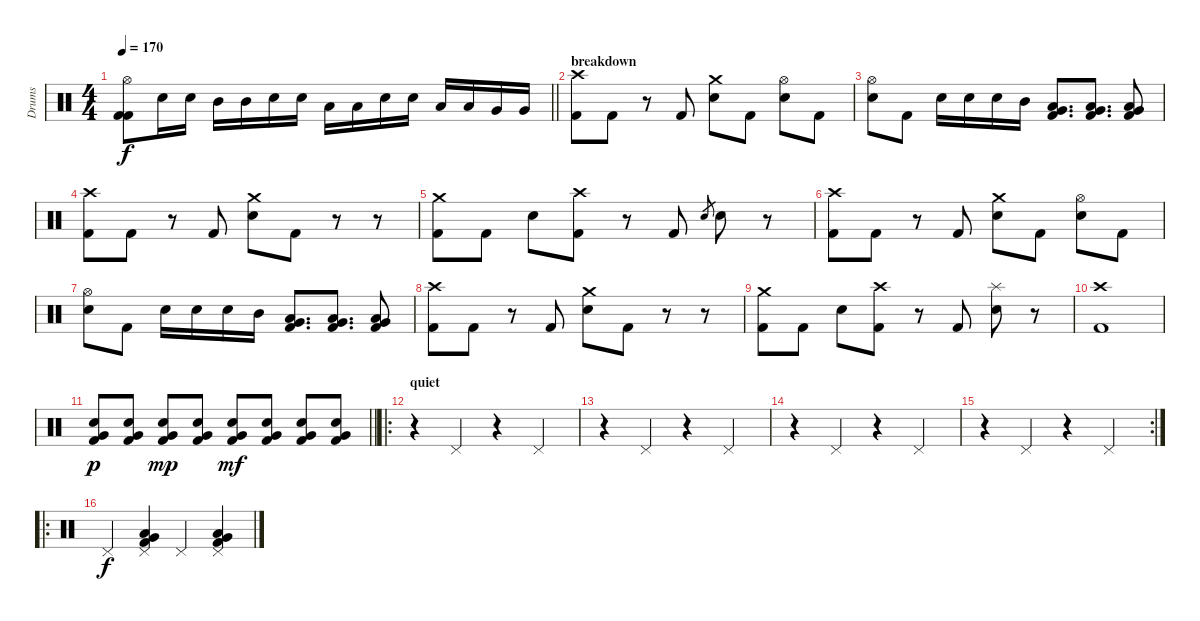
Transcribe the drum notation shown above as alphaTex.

\track ("Drums" "Drums") {instrument percussion}
\staff {score}
\articulation defaults
\ts (4 4)
\tempo 170
\clef neutral
\barLineRight lightlight
\ks c
("Hi-Hat (open)" "Kick (hit) 2" "Kick (hit) 2").8{dy f} "Electric Snare (hit)".16 "Electric Snare (hit)".16 "Mid Tom (hit)".16 "Mid Tom (hit)".16 "Electric Snare (hit)".16 "Electric Snare (hit)".16 "Low Tom (hit)".16 "Low Tom (hit)".16 "Electric Snare (hit)".16 "Electric Snare (hit)".16 "Low Tom (hit)".16 "Low Tom (hit)".16 "Very Low Tom (hit)".16 "Very Low Tom (hit)".16 |
\section ("" "breakdown")
("Crash high (hit)" "Kick (hit) 2").8 "Kick (hit) 2".8 r.8 "Kick (hit) 2".8 ("Crash medium (hit)" "Electric Snare (hit)").8 "Kick (hit) 2".8 ("Hi-Hat (open)" "Electric Snare (hit)").8 "Kick (hit) 2".8 |
("Hi-Hat (open)" "Electric Snare (hit)").8 "Kick (hit) 2".8 "Electric Snare (hit)".16 "Electric Snare (hit)".16 "Electric Snare (hit)".16 "Mid Tom (hit)".16 ("Low Tom (hit)" "Very Low Tom (hit)" "Kick (hit) 2").8{d} ("Low Tom (hit)" "Very Low Tom (hit)" "Kick (hit) 2").8{d} ("Low Tom (hit)" "Very Low Tom (hit)" "Kick (hit) 2").8 |
("Crash high (hit)" "Kick (hit) 2").8 "Kick (hit) 2".8 r.8 "Kick (hit) 2".8 ("Crash medium (hit)" "Electric Snare (hit)").8 "Kick (hit) 2".8 r.8 r.8 |
("Crash medium (hit)" "Kick (hit) 2").8 "Kick (hit) 2".8 "Electric Snare (hit)".8 ("Crash high (hit)" "Kick (hit) 2").8 r.8 "Kick (hit) 2".8 "Electric Snare (hit)".8{gr} "Electric Snare (hit)".8 r.8 |
("Crash high (hit)" "Kick (hit) 2").8 "Kick (hit) 2".8 r.8 "Kick (hit) 2".8 ("Crash medium (hit)" "Electric Snare (hit)").8 "Kick (hit) 2".8 ("Hi-Hat (open)" "Electric Snare (hit)").8 "Kick (hit) 2".8 |
("Hi-Hat (open)" "Electric Snare (hit)").8 "Kick (hit) 2".8 "Electric Snare (hit)".16 "Electric Snare (hit)".16 "Electric Snare (hit)".16 "Mid Tom (hit)".16 ("Low Tom (hit)" "Very Low Tom (hit)" "Kick (hit) 2").8{d} ("Low Tom (hit)" "Very Low Tom (hit)" "Kick (hit) 2").8{d} ("Low Tom (hit)" "Very Low Tom (hit)" "Kick (hit) 2").8 |
("Crash high (hit)" "Kick (hit) 2").8 "Kick (hit) 2".8 r.8 "Kick (hit) 2".8 ("Crash medium (hit)" "Electric Snare (hit)").8 "Kick (hit) 2".8 r.8 r.8 |
("Crash medium (hit)" "Kick (hit) 2").8 "Kick (hit) 2".8 "Electric Snare (hit)".8 ("Crash high (hit)" "Kick (hit) 2").8 r.8 "Kick (hit) 2".8 ("Splash (hit)" "Electric Snare (hit)").8 r.8 |
("Crash high (hit)" "Kick (hit) 2").1 |
\barLineRight lightlight
("Electric Snare (hit)" "Very Low Tom (hit)" "Kick (hit) 2").8{dy p} ("Electric Snare (hit)" "Very Low Tom (hit)" "Kick (hit) 2").8 ("Electric Snare (hit)" "Very Low Tom (hit)" "Kick (hit) 2").8{dy mp} ("Electric Snare (hit)" "Very Low Tom (hit)" "Kick (hit) 2").8 ("Electric Snare (hit)" "Very Low Tom (hit)" "Kick (hit) 2").8{dy mf} ("Electric Snare (hit)" "Very Low Tom (hit)" "Kick (hit) 2").8 ("Electric Snare (hit)" "Very Low Tom (hit)" "Kick (hit) 2").8 ("Electric Snare (hit)" "Very Low Tom (hit)" "Kick (hit) 2").8 |
\ro
\section ("" "quiet")
r.4 "Pedal Hi-Hat (hit)".4 r.4 "Pedal Hi-Hat (hit)".4 |
r.4 "Pedal Hi-Hat (hit)".4 r.4 "Pedal Hi-Hat (hit)".4 |
r.4 "Pedal Hi-Hat (hit)".4 r.4 "Pedal Hi-Hat (hit)".4 |
\rc 2
r.4 "Pedal Hi-Hat (hit)".4 r.4 "Pedal Hi-Hat (hit)".4 |
\ro "Pedal Hi-Hat (hit)".4{dy f}
("Low Tom (hit)" "Pedal Hi-Hat (hit)" "Very Low Tom (hit)" "Kick (hit) 2").4 "Pedal Hi-Hat (hit)".4 ("Low Tom (hit)" "Pedal Hi-Hat (hit)" "Very Low Tom (hit)" "Kick (hit) 2").4
